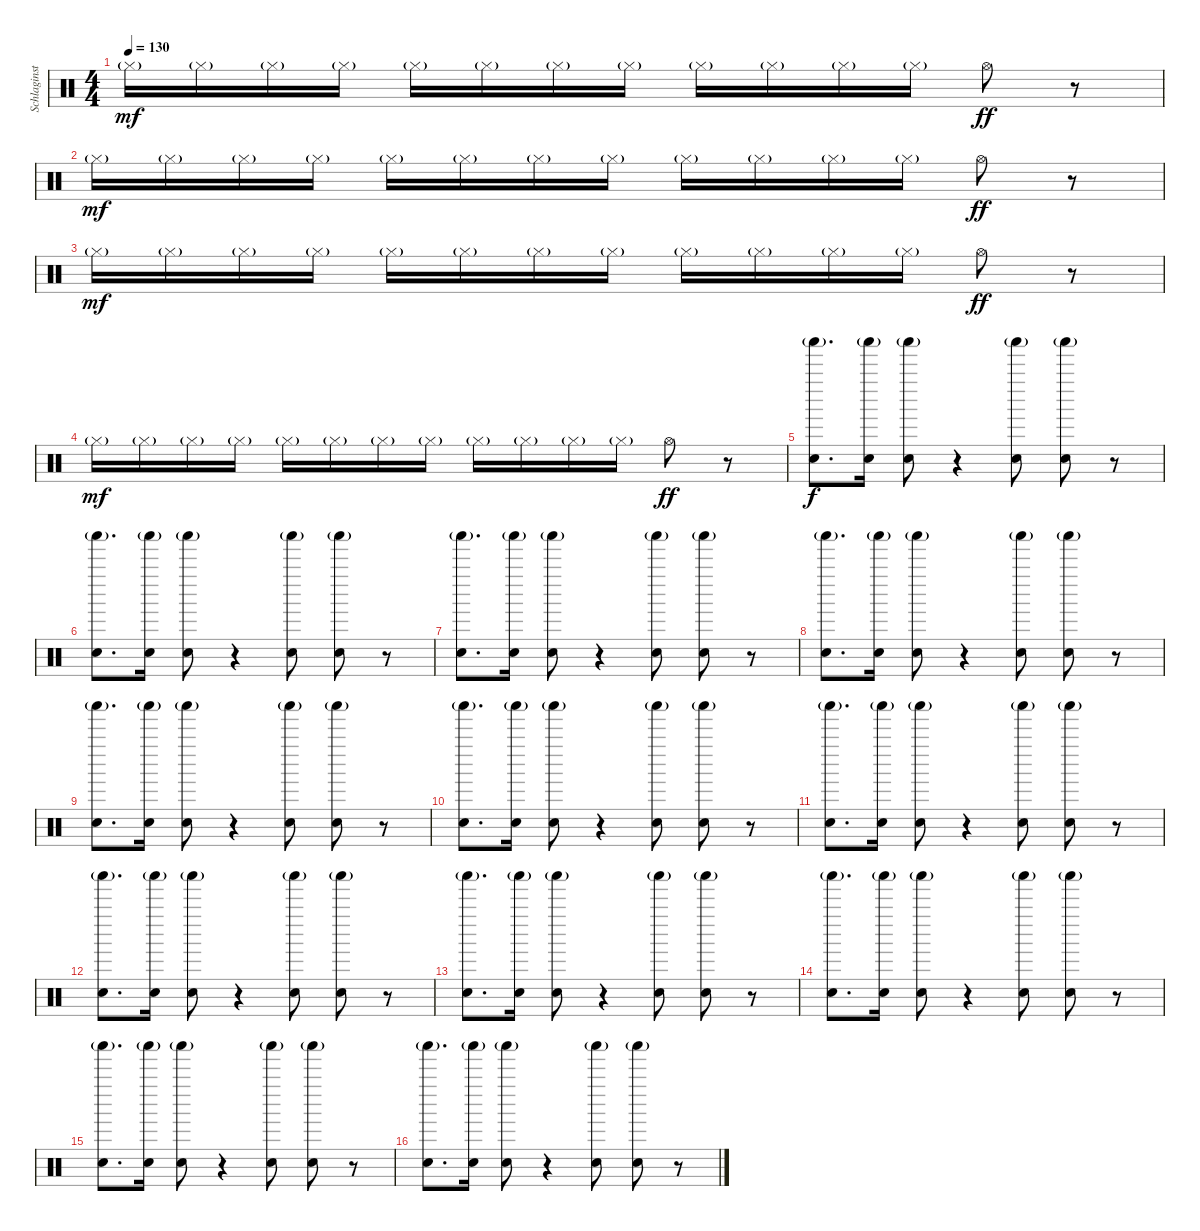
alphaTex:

\track ("Schlaginstrumente - Auswahl" "Schlaginst") {instrument percussion}
\staff {score}
\articulation defaults
\ts (4 4)
\tempo 130
\clef neutral
\ks c "Hi-Hat (closed)"{g}.16{dy mf} "Hi-Hat (closed)"{g}.16 "Hi-Hat (closed)"{g}.16 "Hi-Hat (closed)"{g}.16 "Hi-Hat (closed)"{g}.16 "Hi-Hat (closed)"{g}.16 "Hi-Hat (closed)"{g}.16 "Hi-Hat (closed)"{g}.16 "Hi-Hat (closed)"{g}.16 "Hi-Hat (closed)"{g}.16 "Hi-Hat (closed)"{g}.16 "Hi-Hat (closed)"{g}.16 "Hi-Hat (open)".8{dy ff}
r.8 |
"Hi-Hat (closed)"{g}.16{dy mf} "Hi-Hat (closed)"{g}.16 "Hi-Hat (closed)"{g}.16 "Hi-Hat (closed)"{g}.16 "Hi-Hat (closed)"{g}.16 "Hi-Hat (closed)"{g}.16 "Hi-Hat (closed)"{g}.16 "Hi-Hat (closed)"{g}.16 "Hi-Hat (closed)"{g}.16 "Hi-Hat (closed)"{g}.16 "Hi-Hat (closed)"{g}.16 "Hi-Hat (closed)"{g}.16 "Hi-Hat (open)".8{dy ff} r.8 |
"Hi-Hat (closed)"{g}.16{dy mf} "Hi-Hat (closed)"{g}.16 "Hi-Hat (closed)"{g}.16 "Hi-Hat (closed)"{g}.16 "Hi-Hat (closed)"{g}.16 "Hi-Hat (closed)"{g}.16 "Hi-Hat (closed)"{g}.16 "Hi-Hat (closed)"{g}.16 "Hi-Hat (closed)"{g}.16 "Hi-Hat (closed)"{g}.16 "Hi-Hat (closed)"{g}.16 "Hi-Hat (closed)"{g}.16 "Hi-Hat (open)".8{dy ff} r.8 |
"Hi-Hat (closed)"{g}.16{dy mf} "Hi-Hat (closed)"{g}.16 "Hi-Hat (closed)"{g}.16 "Hi-Hat (closed)"{g}.16 "Hi-Hat (closed)"{g}.16 "Hi-Hat (closed)"{g}.16 "Hi-Hat (closed)"{g}.16 "Hi-Hat (closed)"{g}.16 "Hi-Hat (closed)"{g}.16 "Hi-Hat (closed)"{g}.16 "Hi-Hat (closed)"{g}.16 "Hi-Hat (closed)"{g}.16 "Hi-Hat (open)".8{dy ff} r.8 |
("Shaker (hit)"{g} "Hand Clap (hit)").8{d dy f} ("Shaker (hit)"{g} "Hand Clap (hit)").16 ("Shaker (hit)"{g} "Hand Clap (hit)").8 r.4 ("Shaker (hit)"{g} "Hand Clap (hit)").8 ("Shaker (hit)"{g} "Hand Clap (hit)").8 r.8 |
("Shaker (hit)"{g} "Hand Clap (hit)").8{d} ("Shaker (hit)"{g} "Hand Clap (hit)").16 ("Shaker (hit)"{g} "Hand Clap (hit)").8 r.4 ("Shaker (hit)"{g} "Hand Clap (hit)").8 ("Shaker (hit)"{g} "Hand Clap (hit)").8 r.8 |
("Shaker (hit)"{g} "Hand Clap (hit)").8{d} ("Shaker (hit)"{g} "Hand Clap (hit)").16 ("Shaker (hit)"{g} "Hand Clap (hit)").8 r.4 ("Shaker (hit)"{g} "Hand Clap (hit)").8 ("Shaker (hit)"{g} "Hand Clap (hit)").8 r.8 |
("Shaker (hit)"{g} "Hand Clap (hit)").8{d} ("Shaker (hit)"{g} "Hand Clap (hit)").16 ("Shaker (hit)"{g} "Hand Clap (hit)").8 r.4 ("Shaker (hit)"{g} "Hand Clap (hit)").8 ("Shaker (hit)"{g} "Hand Clap (hit)").8 r.8 |
("Shaker (hit)"{g} "Hand Clap (hit)").8{d} ("Shaker (hit)"{g} "Hand Clap (hit)").16 ("Shaker (hit)"{g} "Hand Clap (hit)").8 r.4 ("Shaker (hit)"{g} "Hand Clap (hit)").8 ("Shaker (hit)"{g} "Hand Clap (hit)").8 r.8 |
("Shaker (hit)"{g} "Hand Clap (hit)").8{d} ("Shaker (hit)"{g} "Hand Clap (hit)").16 ("Shaker (hit)"{g} "Hand Clap (hit)").8 r.4 ("Shaker (hit)"{g} "Hand Clap (hit)").8 ("Shaker (hit)"{g} "Hand Clap (hit)").8 r.8 |
("Shaker (hit)"{g} "Hand Clap (hit)").8{d} ("Shaker (hit)"{g} "Hand Clap (hit)").16 ("Shaker (hit)"{g} "Hand Clap (hit)").8 r.4 ("Shaker (hit)"{g} "Hand Clap (hit)").8 ("Shaker (hit)"{g} "Hand Clap (hit)").8 r.8 |
("Shaker (hit)"{g} "Hand Clap (hit)").8{d} ("Shaker (hit)"{g} "Hand Clap (hit)").16 ("Shaker (hit)"{g} "Hand Clap (hit)").8 r.4 ("Shaker (hit)"{g} "Hand Clap (hit)").8 ("Shaker (hit)"{g} "Hand Clap (hit)").8 r.8 |
("Shaker (hit)"{g} "Hand Clap (hit)").8{d} ("Shaker (hit)"{g} "Hand Clap (hit)").16 ("Shaker (hit)"{g} "Hand Clap (hit)").8 r.4 ("Shaker (hit)"{g} "Hand Clap (hit)").8 ("Shaker (hit)"{g} "Hand Clap (hit)").8 r.8 |
("Shaker (hit)"{g} "Hand Clap (hit)").8{d} ("Shaker (hit)"{g} "Hand Clap (hit)").16 ("Shaker (hit)"{g} "Hand Clap (hit)").8 r.4 ("Shaker (hit)"{g} "Hand Clap (hit)").8 ("Shaker (hit)"{g} "Hand Clap (hit)").8 r.8 |
("Shaker (hit)"{g} "Hand Clap (hit)").8{d} ("Shaker (hit)"{g} "Hand Clap (hit)").16 ("Shaker (hit)"{g} "Hand Clap (hit)").8 r.4 ("Shaker (hit)"{g} "Hand Clap (hit)").8 ("Shaker (hit)"{g} "Hand Clap (hit)").8 r.8 |
("Shaker (hit)"{g} "Hand Clap (hit)").8{d} ("Shaker (hit)"{g} "Hand Clap (hit)").16 ("Shaker (hit)"{g} "Hand Clap (hit)").8 r.4 ("Shaker (hit)"{g} "Hand Clap (hit)").8 ("Shaker (hit)"{g} "Hand Clap (hit)").8 r.8
